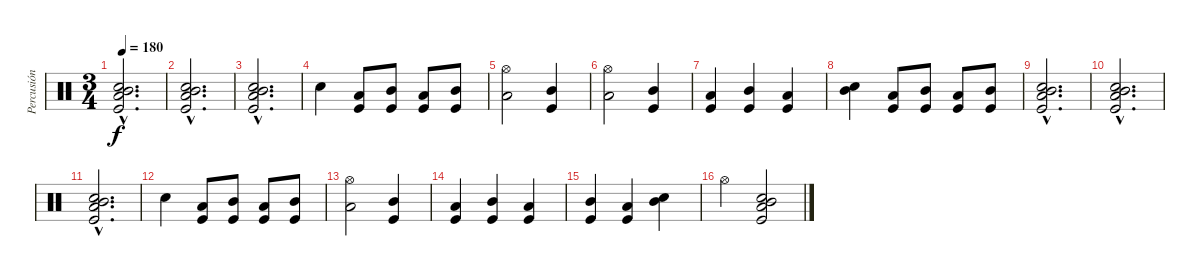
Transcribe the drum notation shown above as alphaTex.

\track ("Percusión" "Percusión") {instrument percussion}
\staff {score}
\articulation defaults
\ts (3 4)
\tempo 180
\clef neutral
\ks c
("Kick (hit)"{hac} "Low Tom (hit)"{hac} "Mid Tom (hit)"{hac} "Electric Snare (hit)"{hac}).2{d dy f} |
("Kick (hit)"{hac} "Low Tom (hit)"{hac} "Mid Tom (hit)"{hac} "Snare (hit) 2"{hac}).2{d} |
("Kick (hit)"{hac} "Low Tom (hit)"{hac} "Mid Tom (hit)"{hac} "Snare (hit) 2"{hac}).2{d} |
"Electric Snare (hit)".4 ("Kick (hit)" "Low Tom (hit)").8 ("Kick (hit)" "Mid Tom (hit)").8 ("Kick (hit)" "Low Tom (hit)").8 ("Kick (hit)" "Mid Tom (hit)").8 |
("Hi-Hat (open)" "Low Tom (hit)").2 ("Kick (hit)" "Mid Tom (hit)").4 |
("Hi-Hat (open)" "Low Tom (hit)").2 ("Kick (hit)" "Mid Tom (hit)").4 |
("Kick (hit)" "Low Tom (hit)").4 ("Kick (hit)" "Mid Tom (hit)").4 ("Kick (hit)" "Low Tom (hit)").4 |
("Electric Snare (hit)" "Mid Tom (hit)").4 ("Kick (hit)" "Low Tom (hit)").8 ("Kick (hit)" "Mid Tom (hit)").8 ("Kick (hit)" "Low Tom (hit)").8 ("Kick (hit)" "Mid Tom (hit)").8 |
("Kick (hit)"{hac} "Low Tom (hit)"{hac} "Mid Tom (hit)"{hac} "Snare (hit) 2"{hac}).2{d} |
("Kick (hit)"{hac} "Low Tom (hit)"{hac} "Mid Tom (hit)"{hac} "Snare (hit) 2"{hac}).2{d} |
("Kick (hit)"{hac} "Low Tom (hit)"{hac} "Mid Tom (hit)"{hac} "Snare (hit) 2"{hac}).2{d} |
"Electric Snare (hit)".4 ("Kick (hit)" "Low Tom (hit)").8 ("Kick (hit)" "Mid Tom (hit)").8 ("Kick (hit)" "Low Tom (hit)").8 ("Kick (hit)" "Mid Tom (hit)").8 |
("Hi-Hat (open)" "Low Tom (hit)").2 ("Kick (hit)" "Mid Tom (hit)").4 |
("Kick (hit)" "Low Tom (hit)").4 ("Kick (hit)" "Mid Tom (hit)").4 ("Kick (hit)" "Low Tom (hit)").4 |
("Kick (hit)" "Mid Tom (hit)").4 ("Kick (hit)" "Low Tom (hit)").4 ("Electric Snare (hit)" "Mid Tom (hit)").4 |
"Hi-Hat (open)".4 ("Kick (hit)" "Low Tom (hit)" "Mid Tom (hit)" "Electric Snare (hit)").2
